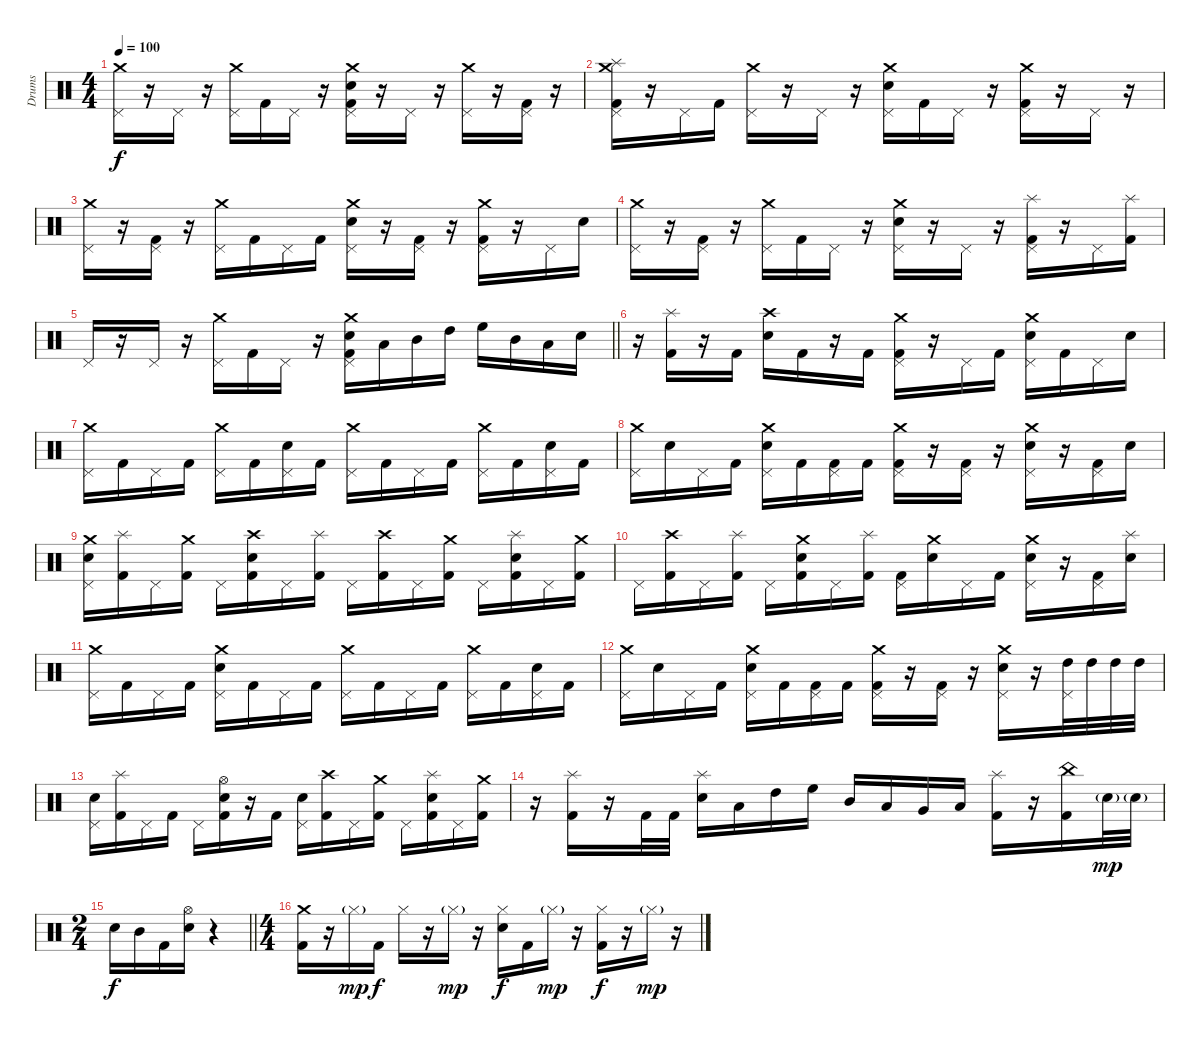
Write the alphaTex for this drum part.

\track ("Drums" "Drums") {instrument percussion}
\staff {score}
\articulation defaults
\ts (4 4)
\tempo 100
\clef neutral
\ks c
("Crash medium (hit)" "Pedal Hi-Hat (hit)").16{dy f} r.16 "Pedal Hi-Hat (hit)".16 r.16 ("Crash medium (hit)" "Pedal Hi-Hat (hit)").16 "Kick (hit) 2".16 "Pedal Hi-Hat (hit)".16 r.16 ("Crash medium (hit)" "Pedal Hi-Hat (hit)" "Electric Snare (hit)" "Kick (hit) 2").16 r.16 "Pedal Hi-Hat (hit)".16 r.16 ("Crash medium (hit)" "Pedal Hi-Hat (hit)").16 r.16 ("Pedal Hi-Hat (hit)" "Kick (hit) 2").16 r.16 |
("Crash medium (hit)" "Splash (hit)" "Pedal Hi-Hat (hit)" "Kick (hit) 2").16 r.16 "Pedal Hi-Hat (hit)".16 "Kick (hit) 2".16 ("Crash medium (hit)" "Pedal Hi-Hat (hit)").16 r.16 "Pedal Hi-Hat (hit)".16 r.16 ("Crash medium (hit)" "Pedal Hi-Hat (hit)" "Electric Snare (hit)").16 "Kick (hit) 2".16 "Pedal Hi-Hat (hit)".16 r.16 ("Crash medium (hit)" "Pedal Hi-Hat (hit)" "Kick (hit) 2").16 r.16 "Pedal Hi-Hat (hit)".16 r.16 |
("Crash medium (hit)" "Pedal Hi-Hat (hit)").16 r.16 ("Pedal Hi-Hat (hit)" "Kick (hit) 2").16 r.16 ("Crash medium (hit)" "Pedal Hi-Hat (hit)").16 "Kick (hit) 2".16 "Pedal Hi-Hat (hit)".16 "Kick (hit) 2".16 ("Crash medium (hit)" "Pedal Hi-Hat (hit)" "Electric Snare (hit)").16 r.16 ("Pedal Hi-Hat (hit)" "Kick (hit) 2").16 r.16 ("Crash medium (hit)" "Pedal Hi-Hat (hit)" "Kick (hit) 2").16 r.16 "Pedal Hi-Hat (hit)".16 "Electric Snare (hit)".16 |
("Crash medium (hit)" "Pedal Hi-Hat (hit)").16 r.16 ("Pedal Hi-Hat (hit)" "Kick (hit) 2").16 r.16 ("Crash medium (hit)" "Pedal Hi-Hat (hit)").16 "Kick (hit) 2".16 "Pedal Hi-Hat (hit)".16 r.16 ("Crash medium (hit)" "Pedal Hi-Hat (hit)" "Electric Snare (hit)").16 r.16 "Pedal Hi-Hat (hit)".16 r.16 ("Splash (hit)" "Pedal Hi-Hat (hit)" "Kick (hit) 2").16 r.16 "Pedal Hi-Hat (hit)".16 ("Splash (hit)" "Kick (hit) 2").16 |
\barLineRight lightlight "Pedal Hi-Hat (hit)".16
r.16 "Pedal Hi-Hat (hit)".16 r.16 ("Crash medium (hit)" "Pedal Hi-Hat (hit)").16 "Kick (hit) 2".16 "Pedal Hi-Hat (hit)".16 r.16 ("Crash medium (hit)" "Pedal Hi-Hat (hit)" "Electric Snare (hit)" "Kick (hit) 2").16 "Low Tom (hit)".16 "Mid Tom (hit)".16 "High Tom (hit)".16 "High Floor Tom (hit)".16 "Mid Tom (hit)".16 "Low Tom (hit)".16 "Electric Snare (hit)".16 |
\section ("" "")
r.16 ("Splash (hit)" "Kick (hit) 2").16 r.16 "Kick (hit) 2".16 ("Crash high (hit)" "Electric Snare (hit)").16 "Kick (hit) 2".16 r.16 "Kick (hit) 2".16 ("Crash medium (hit)" "Pedal Hi-Hat (hit)" "Kick (hit) 2").16 r.16 "Pedal Hi-Hat (hit)".16 "Kick (hit) 2".16 ("Crash medium (hit)" "Pedal Hi-Hat (hit)" "Electric Snare (hit)").16 "Kick (hit) 2".16 "Pedal Hi-Hat (hit)".16 "Electric Snare (hit)".16 |
("Crash medium (hit)" "Pedal Hi-Hat (hit)").16 "Kick (hit) 2".16 "Pedal Hi-Hat (hit)".16 "Kick (hit) 2".16 ("Crash medium (hit)" "Pedal Hi-Hat (hit)").16 "Kick (hit) 2".16 ("Pedal Hi-Hat (hit)" "Electric Snare (hit)").16 "Kick (hit) 2".16 ("Crash medium (hit)" "Pedal Hi-Hat (hit)").16 "Kick (hit) 2".16 "Pedal Hi-Hat (hit)".16 "Kick (hit) 2".16 ("Crash medium (hit)" "Pedal Hi-Hat (hit)").16 "Kick (hit) 2".16 ("Pedal Hi-Hat (hit)" "Electric Snare (hit)").16 "Kick (hit) 2".16 |
("Crash medium (hit)" "Pedal Hi-Hat (hit)").16 "Electric Snare (hit)".16 "Pedal Hi-Hat (hit)".16 "Kick (hit) 2".16 ("Crash medium (hit)" "Pedal Hi-Hat (hit)" "Electric Snare (hit)").16 "Kick (hit) 2".16 ("Pedal Hi-Hat (hit)" "Kick (hit) 2").16 "Kick (hit) 2".16 ("Crash medium (hit)" "Pedal Hi-Hat (hit)" "Kick (hit) 2").16 r.16 ("Pedal Hi-Hat (hit)" "Kick (hit) 2").16 r.16 ("Crash medium (hit)" "Pedal Hi-Hat (hit)" "Electric Snare (hit)").16 r.16 ("Pedal Hi-Hat (hit)" "Kick (hit) 2").16 "Electric Snare (hit)".16 |
("Crash medium (hit)" "Pedal Hi-Hat (hit)" "Electric Snare (hit)").16 ("Splash (hit)" "Kick (hit) 2").16 "Pedal Hi-Hat (hit)".16 ("Crash medium (hit)" "Kick (hit) 2").16 "Pedal Hi-Hat (hit)".16 ("Crash high (hit)" "Electric Snare (hit)" "Kick (hit) 2").16 "Pedal Hi-Hat (hit)".16 ("Splash (hit)" "Kick (hit) 2").16 "Pedal Hi-Hat (hit)".16 ("Crash high (hit)" "Kick (hit) 2").16 "Pedal Hi-Hat (hit)".16 ("Crash medium (hit)" "Kick (hit) 2").16 "Pedal Hi-Hat (hit)".16 ("Splash (hit)" "Electric Snare (hit)" "Kick (hit) 2").16 "Pedal Hi-Hat (hit)".16 ("Crash medium (hit)" "Kick (hit) 2").16 |
"Pedal Hi-Hat (hit)".16 ("Crash high (hit)" "Kick (hit) 2").16 "Pedal Hi-Hat (hit)".16 ("Splash (hit)" "Kick (hit) 2").16 "Pedal Hi-Hat (hit)".16 ("Crash medium (hit)" "Electric Snare (hit)" "Kick (hit) 2").16 "Pedal Hi-Hat (hit)".16 ("Splash (hit)" "Kick (hit) 2").16 ("Pedal Hi-Hat (hit)" "Kick (hit) 2").16 ("Crash medium (hit)" "Electric Snare (hit)").16 "Pedal Hi-Hat (hit)".16 "Kick (hit) 2".16 ("Crash medium (hit)" "Pedal Hi-Hat (hit)" "Electric Snare (hit)").16 r.16 ("Pedal Hi-Hat (hit)" "Kick (hit) 2").16 ("Splash (hit)" "Electric Snare (hit)").16 |
("Crash medium (hit)" "Pedal Hi-Hat (hit)").16 "Kick (hit) 2".16 "Pedal Hi-Hat (hit)".16 "Kick (hit) 2".16 ("Crash medium (hit)" "Pedal Hi-Hat (hit)" "Electric Snare (hit)").16 "Kick (hit) 2".16 "Pedal Hi-Hat (hit)".16 "Kick (hit) 2".16 ("Crash medium (hit)" "Pedal Hi-Hat (hit)").16 "Kick (hit) 2".16 "Pedal Hi-Hat (hit)".16 "Kick (hit) 2".16 ("Crash medium (hit)" "Pedal Hi-Hat (hit)").16 "Kick (hit) 2".16 ("Pedal Hi-Hat (hit)" "Electric Snare (hit)").16 "Kick (hit) 2".16 |
("Crash medium (hit)" "Pedal Hi-Hat (hit)").16 "Electric Snare (hit)".16 "Pedal Hi-Hat (hit)".16 "Kick (hit) 2".16 ("Crash medium (hit)" "Pedal Hi-Hat (hit)" "Electric Snare (hit)").16 "Kick (hit) 2".16 ("Pedal Hi-Hat (hit)" "Kick (hit) 2").16 "Kick (hit) 2".16 ("Crash medium (hit)" "Pedal Hi-Hat (hit)" "Kick (hit) 2").16 r.16 ("Pedal Hi-Hat (hit)" "Kick (hit) 2").16 r.16 ("Crash medium (hit)" "Pedal Hi-Hat (hit)" "Electric Snare (hit)").16 r.16 ("High Tom (hit)" "Pedal Hi-Hat (hit)").32 "High Tom (hit)".32 "High Tom (hit)".32 "High Tom (hit)".32 |
("Pedal Hi-Hat (hit)" "Electric Snare (hit)").16 ("Splash (hit)" "Kick (hit) 2").16 "Pedal Hi-Hat (hit)".16 "Kick (hit) 2".16 "Pedal Hi-Hat (hit)".16 ("Hi-Hat (open)" "Electric Snare (hit)" "Kick (hit) 2").16 r.16 "Kick (hit) 2".16 ("Pedal Hi-Hat (hit)" "Electric Snare (hit)").16 ("Crash high (hit)" "Kick (hit) 2").16 "Pedal Hi-Hat (hit)".16 ("Crash medium (hit)" "Kick (hit) 2").16 "Pedal Hi-Hat (hit)".16 ("Splash (hit)" "Electric Snare (hit)" "Kick (hit) 2").16 "Pedal Hi-Hat (hit)".16 ("Crash medium (hit)" "Kick (hit) 2").16 |
r.16 ("Splash (hit)" "Kick (hit) 2").16 r.16 "Kick (hit) 2".32 "Kick (hit) 2".32 ("Splash (hit)" "Electric Snare (hit)").16 "Low Tom (hit)".16 "High Tom (hit)".16 "High Floor Tom (hit)".16 "Mid Tom (hit)".16 "Low Floor Tom (hit)".16 "Very Low Tom (hit)".16 "Low Floor Tom (hit)".16 ("Splash (hit)" "Kick (hit) 2").16 r.16 ("China (hit)" "Kick (hit) 2").16 "Electric Snare (hit)"{g}.32{dy mp} "Electric Snare (hit)"{g}.32 |
\ts (2 4)
\barLineRight lightlight "Electric Snare (hit)".16{dy f} "Mid Tom (hit)".16 "Kick (hit) 2".16
("Hi-Hat (open)" "Electric Snare (hit)").16 r.4 |
\ts (4 4)
\section ("" "")
("Crash medium (hit)" "Kick (hit) 2").16 r.16 "Hi-Hat (closed)"{g}.16{dy mp} "Kick (hit) 2".16{dy f} "Hi-Hat (closed)".16 r.16 "Hi-Hat (closed)"{g}.16{dy mp} r.16 ("Hi-Hat (closed)" "Electric Snare (hit)").16{dy f} "Kick (hit) 2".16 "Hi-Hat (closed)"{g}.16{dy mp} r.16 ("Hi-Hat (closed)" "Kick (hit) 2").16{dy f} r.16 "Hi-Hat (closed)"{g}.16{dy mp} r.16
